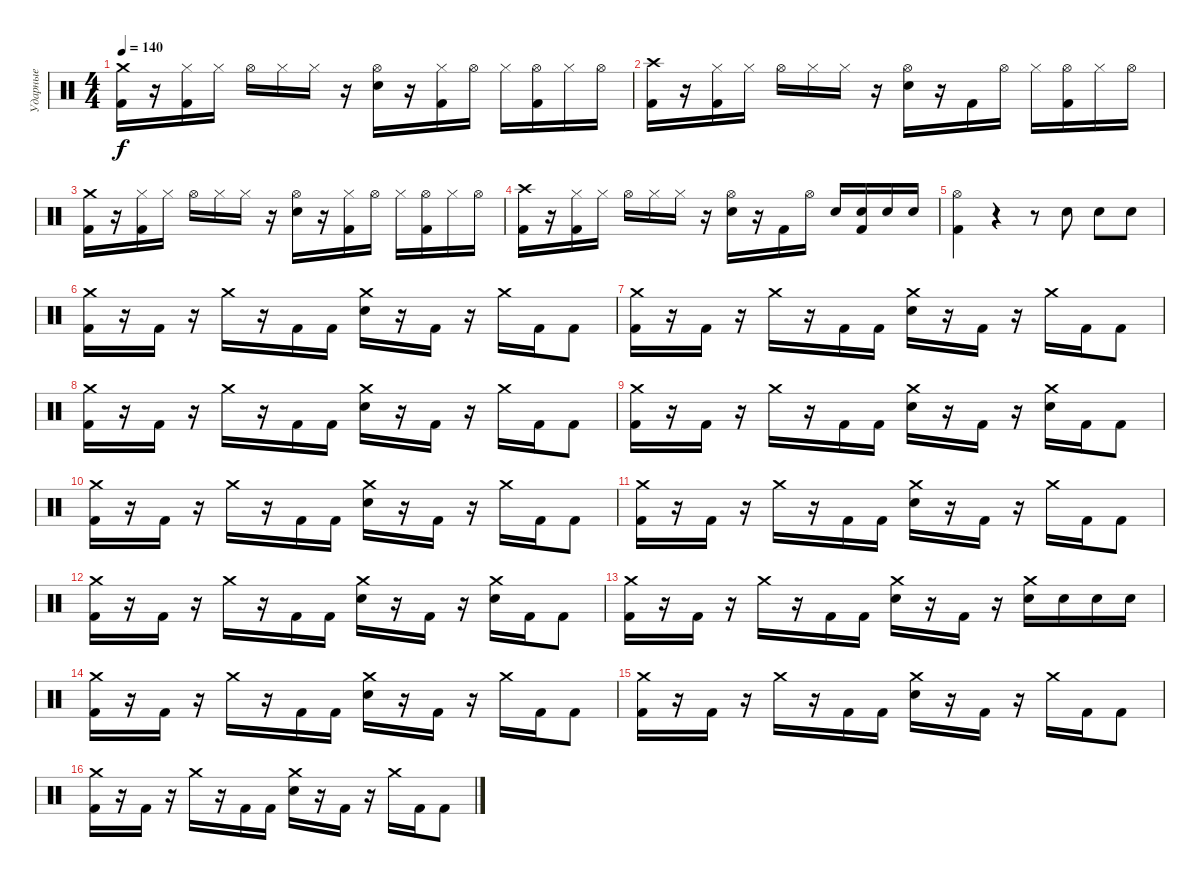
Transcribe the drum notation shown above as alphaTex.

\track ("Ударные" "Ударные") {instrument percussion}
\staff {score}
\articulation defaults
\ts (4 4)
\tempo 140
\clef neutral
\ks c
("Crash medium (hit)" "Kick (hit) 2").16{dy f} r.16 ("Hi-Hat (closed)" "Kick (hit) 2").16 "Hi-Hat (closed)".16 "Hi-Hat (open)".16 "Hi-Hat (closed)".16 "Hi-Hat (closed)".16 r.16 ("Hi-Hat (open)" "Electric Snare (hit)").16 r.16 ("Hi-Hat (closed)" "Kick (hit) 2").16 "Hi-Hat (open)".16 "Hi-Hat (closed)".16 ("Hi-Hat (open)" "Kick (hit) 2").16 "Hi-Hat (closed)".16 "Hi-Hat (open)".16 |
("Crash high (hit)" "Kick (hit) 2").16 r.16 ("Hi-Hat (closed)" "Kick (hit) 2").16 "Hi-Hat (closed)".16 "Hi-Hat (open)".16 "Hi-Hat (closed)".16 "Hi-Hat (closed)".16 r.16 ("Hi-Hat (open)" "Electric Snare (hit)").16 r.16 "Kick (hit) 2".16 "Hi-Hat (open)".16 "Hi-Hat (closed)".16 ("Hi-Hat (open)" "Kick (hit) 2").16 "Hi-Hat (closed)".16 "Hi-Hat (open)".16 |
("Crash medium (hit)" "Kick (hit) 2").16 r.16 ("Hi-Hat (closed)" "Kick (hit) 2").16 "Hi-Hat (closed)".16 "Hi-Hat (open)".16 "Hi-Hat (closed)".16 "Hi-Hat (closed)".16 r.16 ("Hi-Hat (open)" "Electric Snare (hit)").16 r.16 ("Hi-Hat (closed)" "Kick (hit) 2").16 "Hi-Hat (open)".16 "Hi-Hat (closed)".16 ("Hi-Hat (open)" "Kick (hit) 2").16 "Hi-Hat (closed)".16 "Hi-Hat (open)".16 |
("Crash high (hit)" "Kick (hit) 2").16 r.16 ("Hi-Hat (closed)" "Kick (hit) 2").16 "Hi-Hat (closed)".16 "Hi-Hat (open)".16 "Hi-Hat (closed)".16 "Hi-Hat (closed)".16 r.16 ("Hi-Hat (open)" "Electric Snare (hit)").16 r.16 "Kick (hit) 2".16 "Hi-Hat (open)".16 "Electric Snare (hit)".16 ("Electric Snare (hit)" "Kick (hit) 2").16 "Electric Snare (hit)".16 "Electric Snare (hit)".16 |
("Hi-Hat (open)" "Kick (hit) 2").4 r.4 r.8 "Electric Snare (hit)".8 "Electric Snare (hit)".8 "Electric Snare (hit)".8 |
("Crash medium (hit)" "Kick (hit) 2").16 r.16 "Kick (hit) 2".16 r.16 "Crash medium (hit)".16 r.16 "Kick (hit) 2".16 "Kick (hit) 2".16 ("Crash medium (hit)" "Electric Snare (hit)").16 r.16 "Kick (hit) 2".16 r.16 "Crash medium (hit)".16 "Kick (hit) 2".16 "Kick (hit) 2".8 |
("Crash medium (hit)" "Kick (hit) 2").16 r.16 "Kick (hit) 2".16 r.16 "Crash medium (hit)".16 r.16 "Kick (hit) 2".16 "Kick (hit) 2".16 ("Crash medium (hit)" "Electric Snare (hit)").16 r.16 "Kick (hit) 2".16 r.16 "Crash medium (hit)".16 "Kick (hit) 2".16 "Kick (hit) 2".8 |
("Crash medium (hit)" "Kick (hit) 2").16 r.16 "Kick (hit) 2".16 r.16 "Crash medium (hit)".16 r.16 "Kick (hit) 2".16 "Kick (hit) 2".16 ("Crash medium (hit)" "Electric Snare (hit)").16 r.16 "Kick (hit) 2".16 r.16 "Crash medium (hit)".16 "Kick (hit) 2".16 "Kick (hit) 2".8 |
("Crash medium (hit)" "Kick (hit) 2").16 r.16 "Kick (hit) 2".16 r.16 "Crash medium (hit)".16 r.16 "Kick (hit) 2".16 "Kick (hit) 2".16 ("Crash medium (hit)" "Electric Snare (hit)").16 r.16 "Kick (hit) 2".16 r.16 ("Crash medium (hit)" "Electric Snare (hit)").16 "Kick (hit) 2".16 "Kick (hit) 2".8 |
("Crash medium (hit)" "Kick (hit) 2").16 r.16 "Kick (hit) 2".16 r.16 "Crash medium (hit)".16 r.16 "Kick (hit) 2".16 "Kick (hit) 2".16 ("Crash medium (hit)" "Electric Snare (hit)").16 r.16 "Kick (hit) 2".16 r.16 "Crash medium (hit)".16 "Kick (hit) 2".16 "Kick (hit) 2".8 |
("Crash medium (hit)" "Kick (hit) 2").16 r.16 "Kick (hit) 2".16 r.16 "Crash medium (hit)".16 r.16 "Kick (hit) 2".16 "Kick (hit) 2".16 ("Crash medium (hit)" "Electric Snare (hit)").16 r.16 "Kick (hit) 2".16 r.16 "Crash medium (hit)".16 "Kick (hit) 2".16 "Kick (hit) 2".8 |
("Crash medium (hit)" "Kick (hit) 2").16 r.16 "Kick (hit) 2".16 r.16 "Crash medium (hit)".16 r.16 "Kick (hit) 2".16 "Kick (hit) 2".16 ("Crash medium (hit)" "Electric Snare (hit)").16 r.16 "Kick (hit) 2".16 r.16 ("Crash medium (hit)" "Electric Snare (hit)").16 "Kick (hit) 2".16 "Kick (hit) 2".8 |
("Crash medium (hit)" "Kick (hit) 2").16 r.16 "Kick (hit) 2".16 r.16 "Crash medium (hit)".16 r.16 "Kick (hit) 2".16 "Kick (hit) 2".16 ("Crash medium (hit)" "Electric Snare (hit)").16 r.16 "Kick (hit) 2".16 r.16 ("Crash medium (hit)" "Electric Snare (hit)").16 "Electric Snare (hit)".16 "Electric Snare (hit)".16 "Electric Snare (hit)".16 |
("Crash medium (hit)" "Kick (hit) 2").16 r.16 "Kick (hit) 2".16 r.16 "Crash medium (hit)".16 r.16 "Kick (hit) 2".16 "Kick (hit) 2".16 ("Crash medium (hit)" "Electric Snare (hit)").16 r.16 "Kick (hit) 2".16 r.16 "Crash medium (hit)".16 "Kick (hit) 2".16 "Kick (hit) 2".8 |
("Crash medium (hit)" "Kick (hit) 2").16 r.16 "Kick (hit) 2".16 r.16 "Crash medium (hit)".16 r.16 "Kick (hit) 2".16 "Kick (hit) 2".16 ("Crash medium (hit)" "Electric Snare (hit)").16 r.16 "Kick (hit) 2".16 r.16 "Crash medium (hit)".16 "Kick (hit) 2".16 "Kick (hit) 2".8 |
("Crash medium (hit)" "Kick (hit) 2").16 r.16 "Kick (hit) 2".16 r.16 "Crash medium (hit)".16 r.16 "Kick (hit) 2".16 "Kick (hit) 2".16 ("Crash medium (hit)" "Electric Snare (hit)").16 r.16 "Kick (hit) 2".16 r.16 "Crash medium (hit)".16 "Kick (hit) 2".16 "Kick (hit) 2".8
